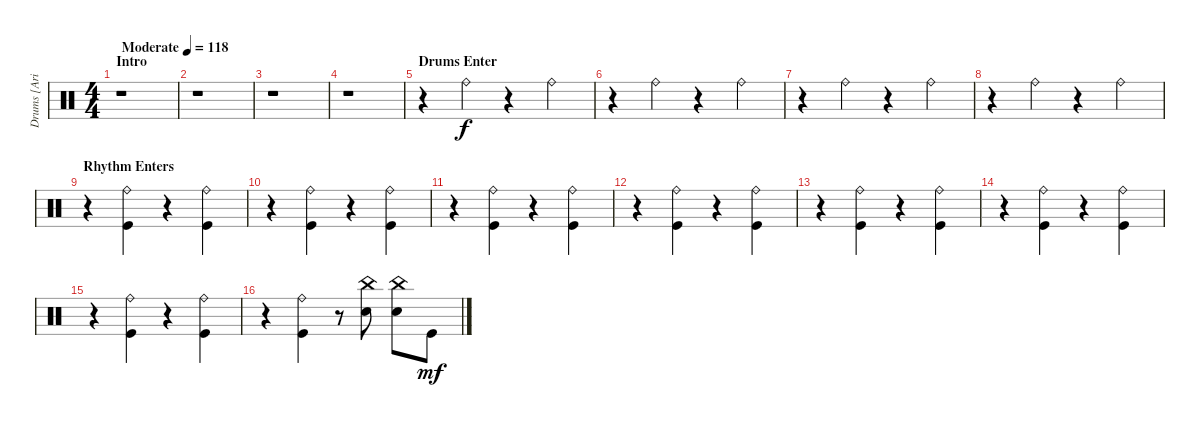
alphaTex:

\track ("Drums [Arin Ilejay]" "Drums [Ari") {instrument percussion}
\staff {score}
\articulation defaults
\ts (4 4)
\section ("" "Intro")
\tempo (118 "Moderate")
\clef neutral
\ks c
r.1{dy f} |
r.1 |
r.1 |
r.1 |
\section ("" "Drums Enter")
r.4 "Ride (bell)".4 r.4 "Ride (bell)".4 |
r.4 "Ride (bell)".4 r.4 "Ride (bell)".4 |
r.4 "Ride (bell)".4 r.4 "Ride (bell)".4 |
r.4 "Ride (bell)".4 r.4 "Ride (bell)".4 |
\section ("" "Rhythm Enters")
r.4 ("Ride (bell)" "Kick (hit)").4 r.4 ("Ride (bell)" "Kick (hit)").4 |
r.4 ("Ride (bell)" "Kick (hit)").4 r.4 ("Ride (bell)" "Kick (hit)").4 |
r.4 ("Ride (bell)" "Kick (hit)").4 r.4 ("Ride (bell)" "Kick (hit)").4 |
r.4 ("Ride (bell)" "Kick (hit)").4 r.4 ("Ride (bell)" "Kick (hit)").4 |
r.4 ("Ride (bell)" "Kick (hit)").4 r.4 ("Ride (bell)" "Kick (hit)").4 |
r.4 ("Ride (bell)" "Kick (hit)").4 r.4 ("Ride (bell)" "Kick (hit)").4 |
r.4 ("Ride (bell)" "Kick (hit)").4 r.4 ("Ride (bell)" "Kick (hit)").4 |
r.4 ("Ride (bell)" "Kick (hit)").4 r.8 ("China (hit)" "Snare (hit) 2").8 ("China (hit)" "Snare (hit) 2").8 "Kick (hit)".8{dy mf}
